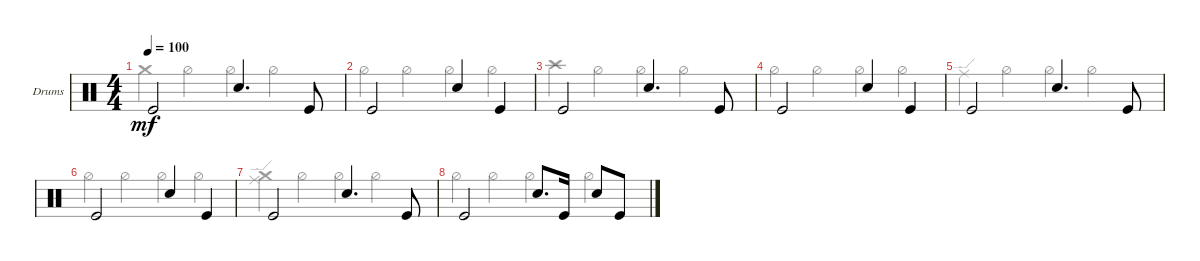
\bracketExtendMode groupsimilarinstruments
\firstSystemTrackNameOrientation horizontal
\otherSystemsTrackNameOrientation horizontal
\track ("Drumkit" "Drums") {multiBarRest instrument percussion}
\staff {score}
\articulation defaults
\voice
\ts (4 4)
\tempo 100
\clef neutral
\scale
0.287671
\ks c "Kick (hit)".2{dy mf} "Snare (hit) 2".4{d} "Kick (hit)".8
|
\scale
0.212329 "Kick (hit)".2 "Snare (hit) 2".4 "Kick (hit)".4 |
\scale
0.287671 "Kick (hit)".2 "Snare (hit) 2".4{d} "Kick (hit)".8 |
\scale
0.212329 "Kick (hit)".2 "Snare (hit) 2".4 "Kick (hit)".4 |
\scale
0.232044 "Kick (hit)".2 "Snare (hit) 2".4{d} "Kick (hit)".8 |
\scale
0.171271 "Kick (hit)".2 "Snare (hit) 2".4 "Kick (hit)".4 |
\scale
0.232044 "Kick (hit)".2 "Snare (hit) 2".4{d} "Kick (hit)".8 |
\scale
0.364641 "Kick (hit)".2 "Snare (hit) 2".8{d} "Kick (hit)".16 "Snare (hit) 2".8 "Kick (hit)".8
\voice
\clef neutral
\ottava regular
\simile none
\scale
0.287671
\ks c "Crash medium (hit)".4{dy mf} "Hi-Hat (half)".4 "Hi-Hat (half)".4 "Hi-Hat (half)".4
|
\scale
0.212329 "Hi-Hat (half)".4 "Hi-Hat (half)".4 "Hi-Hat (half)".4 "Hi-Hat (half)".4 |
\scale
0.287671 "Crash high (hit)".4 "Hi-Hat (half)".4 "Hi-Hat (half)".4 "Hi-Hat (half)".4 |
\scale
0.212329 "Hi-Hat (half)".4 "Hi-Hat (half)".4 "Hi-Hat (half)".4 "Hi-Hat (half)".4 |
\scale
0.232044 "Ride (edge)".4 "Hi-Hat (half)".4 "Hi-Hat (half)".4 "Hi-Hat (half)".4 |
\scale
0.171271 "Hi-Hat (half)".4 "Hi-Hat (half)".4 "Hi-Hat (half)".4 "Hi-Hat (half)".4 |
\scale
0.232044 ("Crash medium (hit)" "Ride (edge)").4 "Hi-Hat (half)".4 "Hi-Hat (half)".4 "Hi-Hat (half)".4 |
\scale
0.364641 "Hi-Hat (half)".4 "Hi-Hat (half)".4 "Hi-Hat (half)".4 "Hi-Hat (half)".4
